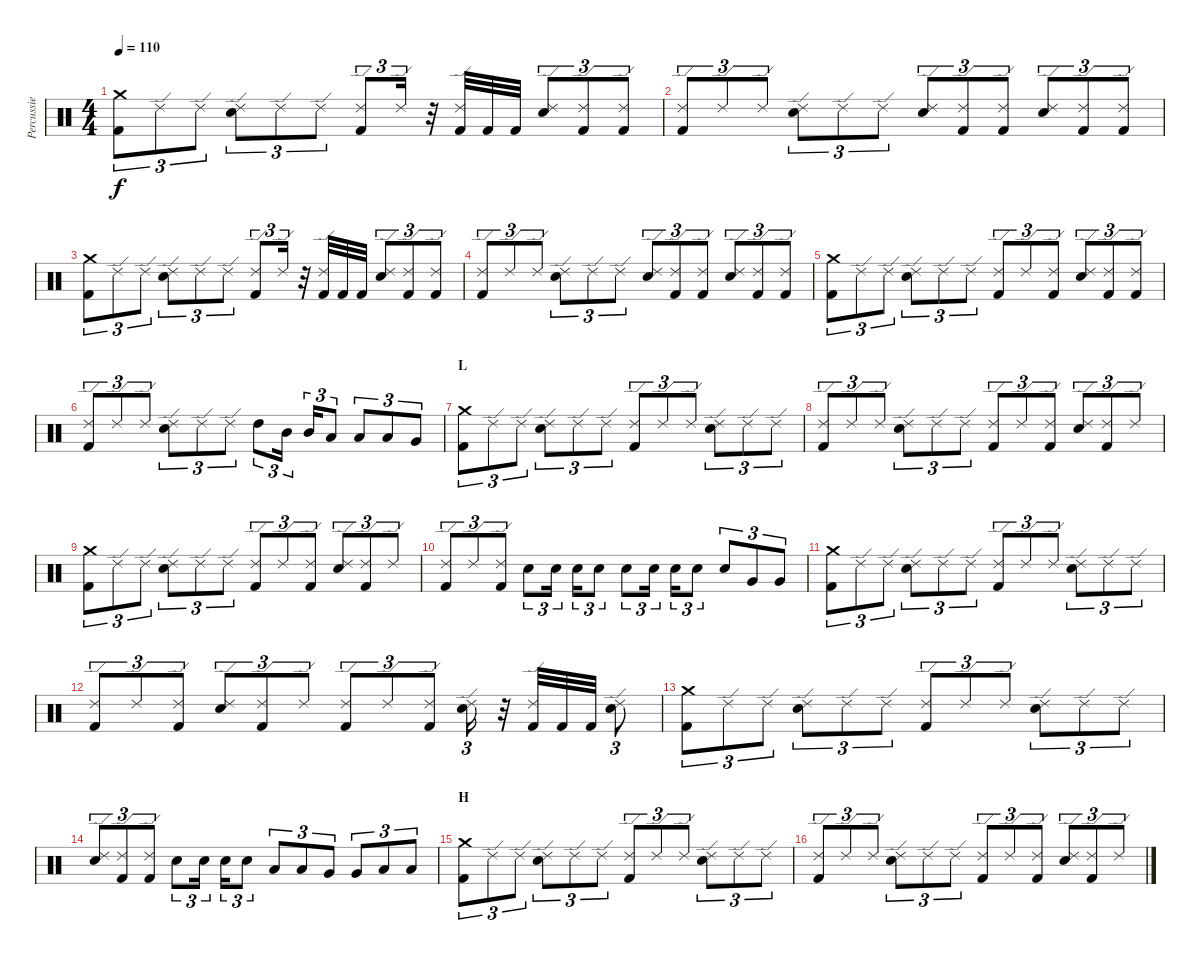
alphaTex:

\track ("Percussie" "Percussie") {instrument percussion}
\staff {score}
\articulation defaults
\ts (4 4)
\tempo 110
\clef neutral
\ks c
("Crash medium (hit)" "Kick (hit) 2").8{tu (3 2) dy f} "Ride (edge) 2".8{tu (3 2)} "Ride (edge) 2".8{tu (3 2)} ("Ride (edge) 2" "Electric Snare (hit)").8{tu (3 2)} "Ride (edge) 2".8{tu (3 2)} "Ride (edge) 2".8{tu (3 2)} ("Ride (edge) 2" "Kick (hit) 2").8{tu (3 2)} "Ride (edge) 2".16{tu (3 2)} r.32 ("Ride (edge) 2" "Kick (hit) 2").32 "Kick (hit) 2".32 "Kick (hit) 2".32 ("Ride (edge) 2" "Electric Snare (hit)").8{tu (3 2)} ("Ride (edge) 2" "Kick (hit) 2").8{tu (3 2)} ("Ride (edge) 2" "Kick (hit) 2").8{tu (3 2)} |
("Ride (edge) 2" "Kick (hit) 2").8{tu (3 2)} "Ride (edge) 2".8{tu (3 2)} "Ride (edge) 2".8{tu (3 2)} ("Ride (edge) 2" "Electric Snare (hit)").8{tu (3 2)} "Ride (edge) 2".8{tu (3 2)} "Ride (edge) 2".8{tu (3 2)} ("Ride (edge) 2" "Electric Snare (hit)").8{tu (3 2)} ("Ride (edge) 2" "Kick (hit) 2").8{tu (3 2)} ("Ride (edge) 2" "Kick (hit) 2").8{tu (3 2)} ("Ride (edge) 2" "Electric Snare (hit)").8{tu (3 2)} ("Ride (edge) 2" "Kick (hit) 2").8{tu (3 2)} ("Ride (edge) 2" "Kick (hit) 2").8{tu (3 2)} |
("Crash medium (hit)" "Kick (hit) 2").8{tu (3 2)} "Ride (edge) 2".8{tu (3 2)} "Ride (edge) 2".8{tu (3 2)} ("Ride (edge) 2" "Electric Snare (hit)").8{tu (3 2)} "Ride (edge) 2".8{tu (3 2)} "Ride (edge) 2".8{tu (3 2)} ("Ride (edge) 2" "Kick (hit) 2").8{tu (3 2)} "Ride (edge) 2".16{tu (3 2)} r.32 ("Ride (edge) 2" "Kick (hit) 2").32 "Kick (hit) 2".32 "Kick (hit) 2".32 ("Ride (edge) 2" "Electric Snare (hit)").8{tu (3 2)} ("Ride (edge) 2" "Kick (hit) 2").8{tu (3 2)} ("Ride (edge) 2" "Kick (hit) 2").8{tu (3 2)} |
("Ride (edge) 2" "Kick (hit) 2").8{tu (3 2)} "Ride (edge) 2".8{tu (3 2)} "Ride (edge) 2".8{tu (3 2)} ("Ride (edge) 2" "Electric Snare (hit)").8{tu (3 2)} "Ride (edge) 2".8{tu (3 2)} "Ride (edge) 2".8{tu (3 2)} ("Ride (edge) 2" "Electric Snare (hit)").8{tu (3 2)} ("Ride (edge) 2" "Kick (hit) 2").8{tu (3 2)} ("Ride (edge) 2" "Kick (hit) 2").8{tu (3 2)} ("Ride (edge) 2" "Electric Snare (hit)").8{tu (3 2)} ("Ride (edge) 2" "Kick (hit) 2").8{tu (3 2)} ("Ride (edge) 2" "Kick (hit) 2").8{tu (3 2)} |
("Crash medium (hit)" "Kick (hit) 2").8{tu (3 2)} "Ride (edge) 2".8{tu (3 2)} "Ride (edge) 2".8{tu (3 2)} ("Ride (edge) 2" "Electric Snare (hit)").8{tu (3 2)} "Ride (edge) 2".8{tu (3 2)} "Ride (edge) 2".8{tu (3 2)} ("Ride (edge) 2" "Kick (hit) 2").8{tu (3 2)} "Ride (edge) 2".8{tu (3 2)} ("Ride (edge) 2" "Kick (hit) 2").8{tu (3 2)} ("Ride (edge) 2" "Electric Snare (hit)").8{tu (3 2)} ("Ride (edge) 2" "Kick (hit) 2").8{tu (3 2)} ("Ride (edge) 2" "Kick (hit) 2").8{tu (3 2)} |
("Ride (edge) 2" "Kick (hit) 2").8{tu (3 2)} "Ride (edge) 2".8{tu (3 2)} "Ride (edge) 2".8{tu (3 2)} ("Ride (edge) 2" "Electric Snare (hit)").8{tu (3 2)} "Ride (edge) 2".8{tu (3 2)} "Ride (edge) 2".8{tu (3 2)} "High Tom (hit)".8{tu (3 2)} "Mid Tom (hit)".16{tu (3 2)} "Mid Tom (hit)".16{tu (3 2)} "Low Tom (hit)".8{tu (3 2)} "Low Tom (hit)".8{tu (3 2)} "Low Tom (hit)".8{tu (3 2)} "Very Low Tom (hit)".8{tu (3 2)} |
\section ("" "L")
("Crash medium (hit)" "Kick (hit) 2").8{tu (3 2)} "Ride (edge) 2".8{tu (3 2)} "Ride (edge) 2".8{tu (3 2)} ("Ride (edge) 2" "Electric Snare (hit)").8{tu (3 2)} "Ride (edge) 2".8{tu (3 2)} "Ride (edge) 2".8{tu (3 2)} ("Ride (edge) 2" "Kick (hit) 2").8{tu (3 2)} "Ride (edge) 2".8{tu (3 2)} "Ride (edge) 2".8{tu (3 2)} ("Ride (edge) 2" "Electric Snare (hit)").8{tu (3 2)} "Ride (edge) 2".8{tu (3 2)} "Ride (edge) 2".8{tu (3 2)} |
("Ride (edge) 2" "Kick (hit) 2").8{tu (3 2)} "Ride (edge) 2".8{tu (3 2)} "Ride (edge) 2".8{tu (3 2)} ("Ride (edge) 2" "Electric Snare (hit)").8{tu (3 2)} "Ride (edge) 2".8{tu (3 2)} "Ride (edge) 2".8{tu (3 2)} ("Ride (edge) 2" "Kick (hit) 2").8{tu (3 2)} "Ride (edge) 2".8{tu (3 2)} ("Ride (edge) 2" "Kick (hit) 2").8{tu (3 2)} ("Ride (edge) 2" "Electric Snare (hit)").8{tu (3 2)} ("Ride (edge) 2" "Kick (hit) 2").8{tu (3 2)} "Ride (edge) 2".8{tu (3 2)} |
("Crash medium (hit)" "Kick (hit) 2").8{tu (3 2)} "Ride (edge) 2".8{tu (3 2)} "Ride (edge) 2".8{tu (3 2)} ("Ride (edge) 2" "Electric Snare (hit)").8{tu (3 2)} "Ride (edge) 2".8{tu (3 2)} "Ride (edge) 2".8{tu (3 2)} ("Ride (edge) 2" "Kick (hit) 2").8{tu (3 2)} "Ride (edge) 2".8{tu (3 2)} ("Ride (edge) 2" "Kick (hit) 2").8{tu (3 2)} ("Ride (edge) 2" "Electric Snare (hit)").8{tu (3 2)} ("Ride (edge) 2" "Kick (hit) 2").8{tu (3 2)} "Ride (edge) 2".8{tu (3 2)} |
("Ride (edge) 2" "Kick (hit) 2").8{tu (3 2)} "Ride (edge) 2".8{tu (3 2)} ("Ride (edge) 2" "Kick (hit) 2").8{tu (3 2)} "Electric Snare (hit)".8{tu (3 2)} "Electric Snare (hit)".16{tu (3 2)} "Electric Snare (hit)".16{tu (3 2)} "Electric Snare (hit)".8{tu (3 2)} "Electric Snare (hit)".8{tu (3 2)} "Electric Snare (hit)".16{tu (3 2)} "Electric Snare (hit)".16{tu (3 2)} "Electric Snare (hit)".8{tu (3 2)} "Electric Snare (hit)".8{tu (3 2)} "Very Low Tom (hit)".8{tu (3 2)} "Very Low Tom (hit)".8{tu (3 2)} |
("Crash medium (hit)" "Kick (hit) 2").8{tu (3 2)} "Ride (edge) 2".8{tu (3 2)} "Ride (edge) 2".8{tu (3 2)} ("Ride (edge) 2" "Electric Snare (hit)").8{tu (3 2)} "Ride (edge) 2".8{tu (3 2)} "Ride (edge) 2".8{tu (3 2)} ("Ride (edge) 2" "Kick (hit) 2").8{tu (3 2)} "Ride (edge) 2".8{tu (3 2)} "Ride (edge) 2".8{tu (3 2)} ("Ride (edge) 2" "Electric Snare (hit)").8{tu (3 2)} "Ride (edge) 2".8{tu (3 2)} "Ride (edge) 2".8{tu (3 2)} |
("Ride (edge) 2" "Kick (hit) 2").8{tu (3 2)} "Ride (edge) 2".8{tu (3 2)} ("Ride (edge) 2" "Kick (hit) 2").8{tu (3 2)} ("Ride (edge) 2" "Electric Snare (hit)").8{tu (3 2)} ("Ride (edge) 2" "Kick (hit) 2").8{tu (3 2)} "Ride (edge) 2".8{tu (3 2)} ("Ride (edge) 2" "Kick (hit) 2").8{tu (3 2)} "Ride (edge) 2".8{tu (3 2)} ("Ride (edge) 2" "Kick (hit) 2").8{tu (3 2)} ("Ride (edge) 2" "Electric Snare (hit)").16{tu (3 2)} r.32 ("Ride (edge) 2" "Kick (hit) 2").32 "Kick (hit) 2".32 "Kick (hit) 2".32 ("Ride (edge) 2" "Electric Snare (hit)").8{tu (3 2)} |
("Crash medium (hit)" "Kick (hit) 2").8{tu (3 2)} "Ride (edge) 2".8{tu (3 2)} "Ride (edge) 2".8{tu (3 2)} ("Ride (edge) 2" "Electric Snare (hit)").8{tu (3 2)} "Ride (edge) 2".8{tu (3 2)} "Ride (edge) 2".8{tu (3 2)} ("Ride (edge) 2" "Kick (hit) 2").8{tu (3 2)} "Ride (edge) 2".8{tu (3 2)} "Ride (edge) 2".8{tu (3 2)} ("Ride (edge) 2" "Electric Snare (hit)").8{tu (3 2)} "Ride (edge) 2".8{tu (3 2)} "Ride (edge) 2".8{tu (3 2)} |
("Ride (edge) 2" "Electric Snare (hit)").8{tu (3 2)} ("Ride (edge) 2" "Kick (hit) 2").8{tu (3 2)} ("Ride (edge) 2" "Kick (hit) 2").8{tu (3 2)} "Electric Snare (hit)".8{tu (3 2)} "Electric Snare (hit)".16{tu (3 2)} "Electric Snare (hit)".16{tu (3 2)} "Electric Snare (hit)".8{tu (3 2)} "Low Tom (hit)".8{tu (3 2)} "Low Tom (hit)".8{tu (3 2)} "Very Low Tom (hit)".8{tu (3 2)} "Very Low Tom (hit)".8{tu (3 2)} "Low Floor Tom (hit)".8{tu (3 2)} "Low Floor Tom (hit)".8{tu (3 2)} |
\section ("" "H")
("Crash medium (hit)" "Kick (hit) 2").8{tu (3 2)} "Ride (edge) 2".8{tu (3 2)} "Ride (edge) 2".8{tu (3 2)} ("Ride (edge) 2" "Electric Snare (hit)").8{tu (3 2)} "Ride (edge) 2".8{tu (3 2)} "Ride (edge) 2".8{tu (3 2)} ("Ride (edge) 2" "Kick (hit) 2").8{tu (3 2)} "Ride (edge) 2".8{tu (3 2)} "Ride (edge) 2".8{tu (3 2)} ("Ride (edge) 2" "Electric Snare (hit)").8{tu (3 2)} "Ride (edge) 2".8{tu (3 2)} "Ride (edge) 2".8{tu (3 2)} |
("Ride (edge) 2" "Kick (hit) 2").8{tu (3 2)} "Ride (edge) 2".8{tu (3 2)} "Ride (edge) 2".8{tu (3 2)} ("Ride (edge) 2" "Electric Snare (hit)").8{tu (3 2)} "Ride (edge) 2".8{tu (3 2)} "Ride (edge) 2".8{tu (3 2)} ("Ride (edge) 2" "Kick (hit) 2").8{tu (3 2)} "Ride (edge) 2".8{tu (3 2)} ("Ride (edge) 2" "Kick (hit) 2").8{tu (3 2)} ("Ride (edge) 2" "Electric Snare (hit)").8{tu (3 2)} ("Ride (edge) 2" "Kick (hit) 2").8{tu (3 2)} "Ride (edge) 2".8{tu (3 2)}
